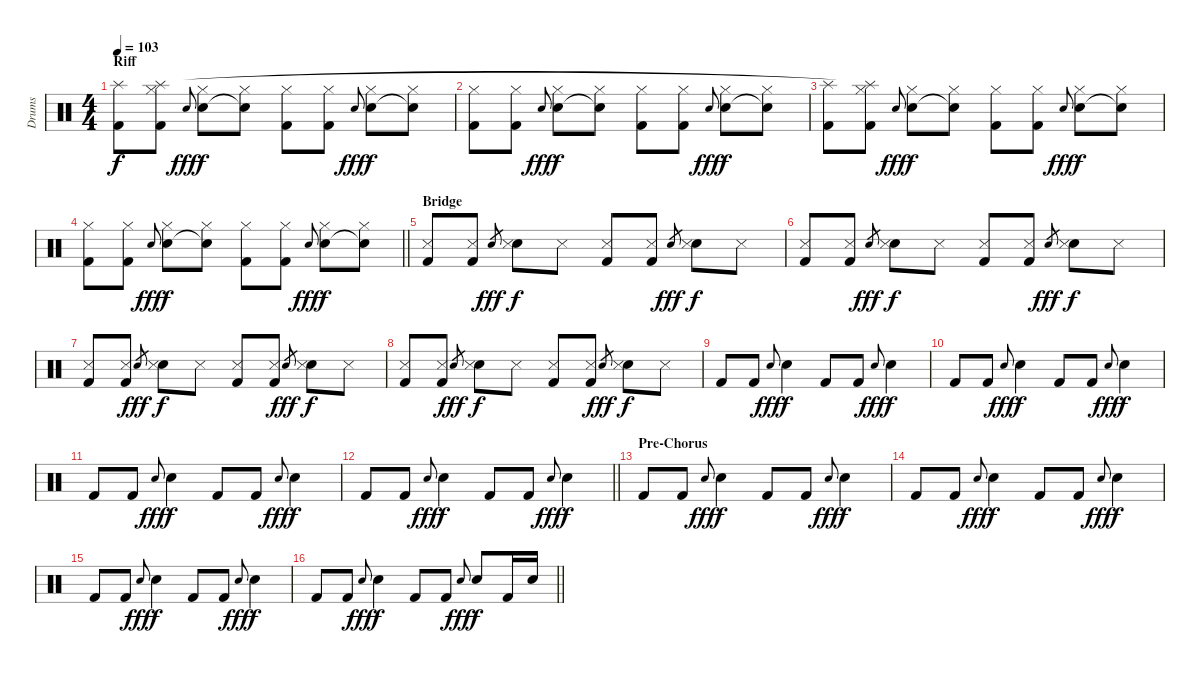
\track ("Drums" "Drums") {instrument percussion}
\staff {score}
\articulation defaults
\ts (4 4)
\section ("" "Riff")
\tempo 103
\clef neutral
\ks c
("Kick (hit) 2" "Splash (hit)").8{dy f} ("Kick (hit) 2" "Hi-Hat (closed)" "Splash (hit)").8 "Snare (hit) 2"{h}.8{gr onbeat dy fff} ("Snare (hit) 2" "Hi-Hat (closed)").8{dy f} ("Snare (hit) 2"{t} "Hi-Hat (closed)").8 ("Kick (hit) 2" "Hi-Hat (closed)").8 ("Kick (hit) 2" "Hi-Hat (closed)").8 "Snare (hit) 2"{h}.8{gr onbeat dy fff} ("Snare (hit) 2" "Hi-Hat (closed)").8{dy f} ("Snare (hit) 2"{t} "Hi-Hat (closed)").8 |
("Kick (hit) 2" "Hi-Hat (closed)").8 ("Kick (hit) 2" "Hi-Hat (closed)").8 "Snare (hit) 2"{h}.8{gr onbeat dy fff} ("Snare (hit) 2" "Hi-Hat (closed)").8{dy f} ("Snare (hit) 2"{t} "Hi-Hat (closed)").8 ("Kick (hit) 2" "Hi-Hat (closed)").8 ("Kick (hit) 2" "Hi-Hat (closed)").8 "Snare (hit) 2"{h}.8{gr onbeat dy fff} ("Snare (hit) 2" "Hi-Hat (closed)").8{dy f} ("Snare (hit) 2"{t} "Hi-Hat (closed)").8 |
("Kick (hit) 2" "Splash (hit)").8 ("Kick (hit) 2" "Hi-Hat (closed)" "Splash (hit)"{t}).8 "Snare (hit) 2"{h}.8{gr onbeat dy fff} ("Snare (hit) 2" "Hi-Hat (closed)").8{dy f} ("Snare (hit) 2"{t} "Hi-Hat (closed)").8 ("Kick (hit) 2" "Hi-Hat (closed)").8 ("Kick (hit) 2" "Hi-Hat (closed)").8 "Snare (hit) 2"{h}.8{gr onbeat dy fff} ("Snare (hit) 2" "Hi-Hat (closed)").8{dy f} ("Snare (hit) 2"{t} "Hi-Hat (closed)").8 |
\barLineRight lightlight
("Kick (hit) 2" "Hi-Hat (closed)").8 ("Kick (hit) 2" "Hi-Hat (closed)").8 "Snare (hit) 2"{h}.8{gr onbeat dy fff} ("Snare (hit) 2" "Hi-Hat (closed)").8{dy f} ("Snare (hit) 2"{t} "Hi-Hat (closed)").8 ("Kick (hit) 2" "Hi-Hat (closed)").8 ("Kick (hit) 2" "Hi-Hat (closed)").8 "Snare (hit) 2"{h}.8{gr onbeat dy fff} ("Snare (hit) 2" "Hi-Hat (closed)").8{dy f} ("Snare (hit) 2"{t} "Hi-Hat (closed)").8 |
\section ("" "Bridge")
("Metronome (hit)" "Kick (hit) 2").8 ("Metronome (hit)" "Kick (hit) 2").8 "Snare (hit) 2"{h}.8{gr dy fff} ("Snare (hit) 2" "Metronome (hit)").8{dy f} "Metronome (hit)".8 ("Metronome (hit)" "Kick (hit) 2").8 ("Metronome (hit)" "Kick (hit) 2").8 "Snare (hit) 2"{h}.8{gr dy fff} ("Snare (hit) 2" "Metronome (hit)").8{dy f} "Metronome (hit)".8 |
("Metronome (hit)" "Kick (hit) 2").8 ("Metronome (hit)" "Kick (hit) 2").8 "Snare (hit) 2"{h}.8{gr dy fff} ("Snare (hit) 2" "Metronome (hit)").8{dy f} "Metronome (hit)".8 ("Metronome (hit)" "Kick (hit) 2").8 ("Metronome (hit)" "Kick (hit) 2").8 "Snare (hit) 2"{h}.8{gr dy fff} ("Snare (hit) 2" "Metronome (hit)").8{dy f} "Metronome (hit)".8 |
("Metronome (hit)" "Kick (hit) 2").8 ("Metronome (hit)" "Kick (hit) 2").8 "Snare (hit) 2"{h}.8{gr dy fff} ("Snare (hit) 2" "Metronome (hit)").8{dy f} "Metronome (hit)".8 ("Metronome (hit)" "Kick (hit) 2").8 ("Metronome (hit)" "Kick (hit) 2").8 "Snare (hit) 2"{h}.8{gr dy fff} ("Snare (hit) 2" "Metronome (hit)").8{dy f} "Metronome (hit)".8 |
("Metronome (hit)" "Kick (hit) 2").8 ("Metronome (hit)" "Kick (hit) 2").8 "Snare (hit) 2"{h}.8{gr dy fff} ("Snare (hit) 2" "Metronome (hit)").8{dy f} "Metronome (hit)".8 ("Metronome (hit)" "Kick (hit) 2").8 ("Metronome (hit)" "Kick (hit) 2").8 "Snare (hit) 2"{h}.8{gr dy fff} ("Snare (hit) 2" "Metronome (hit)").8{dy f} "Metronome (hit)".8 |
"Kick (hit) 2".8 "Kick (hit) 2".8 "Snare (hit) 2"{h}.8{gr onbeat dy fff} "Snare (hit) 2".4{dy f} "Kick (hit) 2".8 "Kick (hit) 2".8 "Snare (hit) 2"{h}.8{gr onbeat dy fff} "Snare (hit) 2".4{dy f} |
"Kick (hit) 2".8 "Kick (hit) 2".8 "Snare (hit) 2"{h}.8{gr onbeat dy fff} "Snare (hit) 2".4{dy f} "Kick (hit) 2".8 "Kick (hit) 2".8 "Snare (hit) 2"{h}.8{gr onbeat dy fff} "Snare (hit) 2".4{dy f} |
"Kick (hit) 2".8 "Kick (hit) 2".8 "Snare (hit) 2"{h}.8{gr onbeat dy fff} "Snare (hit) 2".4{dy f} "Kick (hit) 2".8 "Kick (hit) 2".8 "Snare (hit) 2"{h}.8{gr onbeat dy fff} "Snare (hit) 2".4{dy f} |
\barLineRight lightlight "Kick (hit) 2".8 "Kick (hit) 2".8 "Snare (hit) 2"{h}.8{gr onbeat dy fff} "Snare (hit) 2".4{dy f} "Kick (hit) 2".8 "Kick (hit) 2".8 "Snare (hit) 2"{h}.8{gr onbeat dy fff} "Snare (hit) 2".4{dy f}
|
\section ("" "Pre-Chorus")
"Kick (hit) 2".8 "Kick (hit) 2".8 "Snare (hit) 2"{h}.8{gr onbeat dy fff} "Snare (hit) 2".4{dy f} "Kick (hit) 2".8 "Kick (hit) 2".8 "Snare (hit) 2"{h}.8{gr onbeat dy fff} "Snare (hit) 2".4{dy f} |
"Kick (hit) 2".8 "Kick (hit) 2".8 "Snare (hit) 2"{h}.8{gr onbeat dy fff} "Snare (hit) 2".4{dy f} "Kick (hit) 2".8 "Kick (hit) 2".8 "Snare (hit) 2"{h}.8{gr onbeat dy fff} "Snare (hit) 2".4{dy f} |
"Kick (hit) 2".8 "Kick (hit) 2".8 "Snare (hit) 2"{h}.8{gr onbeat dy fff} "Snare (hit) 2".4{dy f} "Kick (hit) 2".8 "Kick (hit) 2".8 "Snare (hit) 2"{h}.8{gr onbeat dy fff} "Snare (hit) 2".4{dy f} |
\barLineRight lightlight "Kick (hit) 2".8 "Kick (hit) 2".8 "Snare (hit) 2"{h}.8{gr onbeat dy fff} "Snare (hit) 2".4{dy f} "Kick (hit) 2".8 "Kick (hit) 2".8 "Snare (hit) 2"{h}.8{gr onbeat dy fff} "Snare (hit) 2".8{dy f} "Kick (hit) 2".16 "Snare (hit) 2".16
